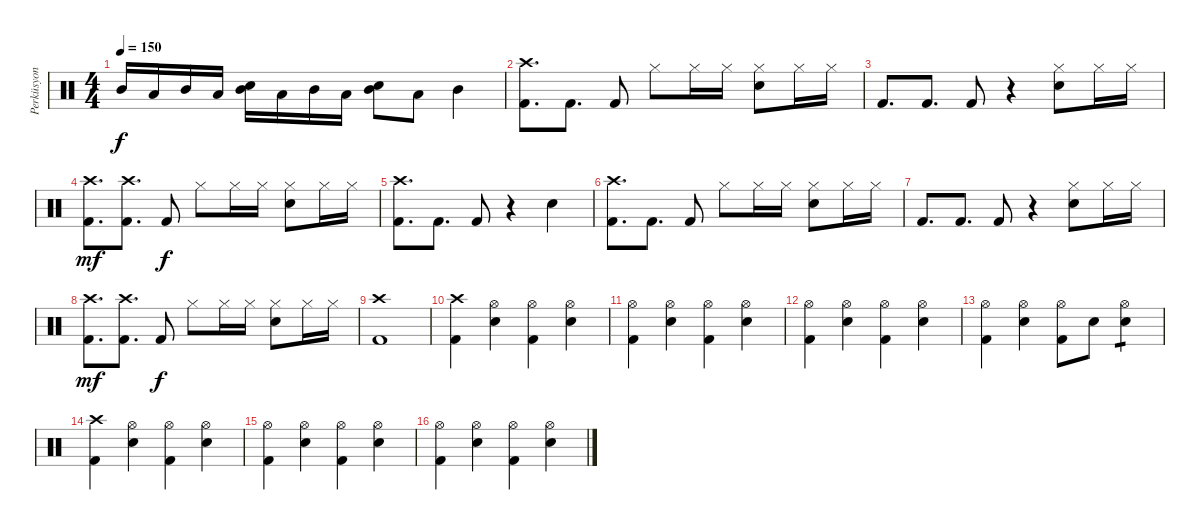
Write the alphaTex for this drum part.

\track ("Perküsyon" "Perküsyon") {instrument percussion}
\staff {score}
\articulation defaults
\ts (4 4)
\tempo 150
\clef neutral
\ks c "Mid Tom (hit)".16{dy f} "Low Tom (hit)".16 "Mid Tom (hit)".16 "Low Tom (hit)".16
("Mid Tom (hit)" "Snare (hit) 2").16 "Low Tom (hit)".16 "Mid Tom (hit)".16 "Low Tom (hit)".16 ("Mid Tom (hit)" "Snare (hit) 2").8 "Low Tom (hit)".8 "Mid Tom (hit)".4 |
("Kick (hit) 2" "Crash high (hit)").8{d} "Kick (hit) 2".8{d} "Kick (hit) 2".8 "Hi-Hat (closed)".8 "Hi-Hat (closed)".16 "Hi-Hat (closed)".16 ("Snare (hit) 2" "Hi-Hat (closed)").8 "Hi-Hat (closed)".16 "Hi-Hat (closed)".16 |
"Kick (hit) 2".8{d} "Kick (hit) 2".8{d} "Kick (hit) 2".8 r.4 ("Snare (hit) 2" "Hi-Hat (closed)").8 "Hi-Hat (closed)".16 "Hi-Hat (closed)".16 |
("Kick (hit) 2" "Crash high (hit)").8{d dy mf} ("Crash high (hit)" "Kick (hit) 2").8{d} "Kick (hit) 2".8{dy f} "Hi-Hat (closed)".8 "Hi-Hat (closed)".16 "Hi-Hat (closed)".16 ("Snare (hit) 2" "Hi-Hat (closed)").8 "Hi-Hat (closed)".16 "Hi-Hat (closed)".16 |
("Kick (hit) 2" "Crash high (hit)").8{d} "Kick (hit) 2".8{d} "Kick (hit) 2".8 r.4 "Snare (hit) 2".4 |
("Kick (hit) 2" "Crash high (hit)").8{d} "Kick (hit) 2".8{d} "Kick (hit) 2".8 "Hi-Hat (closed)".8 "Hi-Hat (closed)".16 "Hi-Hat (closed)".16 ("Snare (hit) 2" "Hi-Hat (closed)").8 "Hi-Hat (closed)".16 "Hi-Hat (closed)".16 |
"Kick (hit) 2".8{d} "Kick (hit) 2".8{d} "Kick (hit) 2".8 r.4 ("Snare (hit) 2" "Hi-Hat (closed)").8 "Hi-Hat (closed)".16 "Hi-Hat (closed)".16 |
("Kick (hit) 2" "Crash high (hit)").8{d dy mf} ("Crash high (hit)" "Kick (hit) 2").8{d} "Kick (hit) 2".8{dy f} "Hi-Hat (closed)".8 "Hi-Hat (closed)".16 "Hi-Hat (closed)".16 ("Snare (hit) 2" "Hi-Hat (closed)").8 "Hi-Hat (closed)".16 "Hi-Hat (closed)".16 |
("Kick (hit) 2" "Crash high (hit)").1 |
("Crash high (hit)" "Kick (hit) 2").4 ("Hi-Hat (open)" "Snare (hit) 2").4 ("Hi-Hat (open)" "Kick (hit) 2").4 ("Hi-Hat (open)" "Snare (hit) 2").4 |
("Hi-Hat (open)" "Kick (hit) 2").4 ("Hi-Hat (open)" "Snare (hit) 2").4 ("Hi-Hat (open)" "Kick (hit) 2").4 ("Hi-Hat (open)" "Snare (hit) 2").4 |
("Hi-Hat (open)" "Kick (hit) 2").4 ("Hi-Hat (open)" "Snare (hit) 2").4 ("Hi-Hat (open)" "Kick (hit) 2").4 ("Hi-Hat (open)" "Snare (hit) 2").4 |
("Hi-Hat (open)" "Kick (hit) 2").4 ("Hi-Hat (open)" "Snare (hit) 2").4 ("Hi-Hat (open)" "Kick (hit) 2").8 "Snare (hit) 2".8 ("Hi-Hat (open)" "Snare (hit) 2").4{tp 1} |
("Crash high (hit)" "Kick (hit) 2").4 ("Hi-Hat (open)" "Snare (hit) 2").4 ("Hi-Hat (open)" "Kick (hit) 2").4 ("Hi-Hat (open)" "Snare (hit) 2").4 |
("Hi-Hat (open)" "Kick (hit) 2").4 ("Hi-Hat (open)" "Snare (hit) 2").4 ("Hi-Hat (open)" "Kick (hit) 2").4 ("Hi-Hat (open)" "Snare (hit) 2").4 |
("Hi-Hat (open)" "Kick (hit) 2").4 ("Hi-Hat (open)" "Snare (hit) 2").4 ("Hi-Hat (open)" "Kick (hit) 2").4 ("Hi-Hat (open)" "Snare (hit) 2").4
